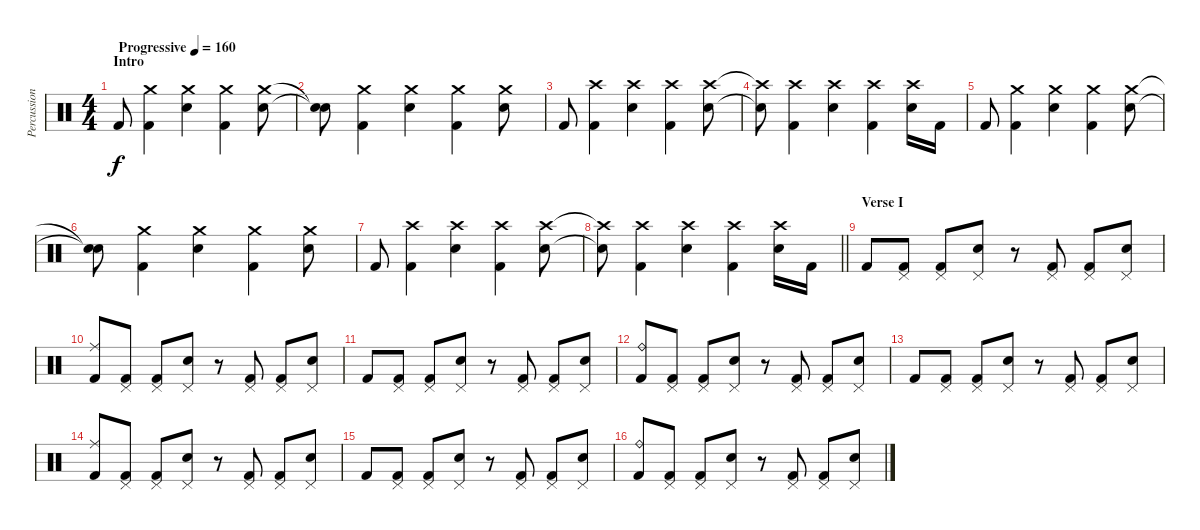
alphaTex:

\track ("Percussion" "Percussion") {instrument percussion}
\staff {score}
\articulation defaults
\ts (4 4)
\section ("" "Intro")
\tempo (160 "Progressive")
\clef neutral
\ks c "Kick (hit) 2".8{dy f}
("Crash medium (hit)" "Kick (hit) 2").4 ("Crash medium (hit)" "Electric Snare (hit)").4 ("Crash medium (hit)" "Kick (hit) 2").4 ("Crash medium (hit)" "Electric Snare (hit)").8 |
("Snare (hit)"{t} "Snare (hit)"{t}).8 ("Crash medium (hit)" "Kick (hit) 2").4 ("Crash medium (hit)" "Electric Snare (hit)").4 ("Crash medium (hit)" "Kick (hit) 2").4 ("Crash medium (hit)" "Electric Snare (hit)").8 |
"Kick (hit) 2".8 ("Crash high (hit)" "Kick (hit) 2").4 ("Crash high (hit)" "Electric Snare (hit)").4 ("Crash high (hit)" "Kick (hit) 2").4 ("Crash high (hit)" "Electric Snare (hit)").8 |
("Crash high (hit)"{t} "Snare (hit)"{t}).8 ("Crash high (hit)" "Kick (hit) 2").4 ("Crash high (hit)" "Electric Snare (hit)").4 ("Crash high (hit)" "Kick (hit) 2").4 ("Crash high (hit)" "Electric Snare (hit)").16 "Kick (hit) 2".16 |
"Kick (hit) 2".8 ("Crash medium (hit)" "Kick (hit) 2").4 ("Crash medium (hit)" "Electric Snare (hit)").4 ("Crash medium (hit)" "Kick (hit) 2").4 ("Crash medium (hit)" "Electric Snare (hit)").8 |
("Snare (hit)"{t} "Snare (hit)"{t}).8 ("Crash medium (hit)" "Kick (hit) 2").4 ("Crash medium (hit)" "Electric Snare (hit)").4 ("Crash medium (hit)" "Kick (hit) 2").4 ("Crash medium (hit)" "Electric Snare (hit)").8 |
"Kick (hit) 2".8 ("Crash high (hit)" "Kick (hit) 2").4 ("Crash high (hit)" "Electric Snare (hit)").4 ("Crash high (hit)" "Kick (hit) 2").4 ("Crash high (hit)" "Electric Snare (hit)").8 |
\barLineRight lightlight
("Crash high (hit)"{t} "Snare (hit)"{t}).8 ("Crash high (hit)" "Kick (hit) 2").4 ("Crash high (hit)" "Electric Snare (hit)").4 ("Crash high (hit)" "Kick (hit) 2").4 ("Crash high (hit)" "Electric Snare (hit)").16 "Kick (hit) 2".16 |
\section ("" "Verse I")
"Kick (hit) 2".8 ("Pedal Hi-Hat (hit)" "Kick (hit) 2").8 ("Pedal Hi-Hat (hit)" "Kick (hit) 2").8 ("Pedal Hi-Hat (hit)" "Electric Snare (hit)").8 r.8 ("Pedal Hi-Hat (hit)" "Kick (hit) 2").8 ("Pedal Hi-Hat (hit)" "Kick (hit) 2").8 ("Pedal Hi-Hat (hit)" "Electric Snare (hit)").8 |
("Ride (middle)" "Kick (hit) 2").8 ("Pedal Hi-Hat (hit)" "Kick (hit) 2").8 ("Pedal Hi-Hat (hit)" "Kick (hit) 2").8 ("Pedal Hi-Hat (hit)" "Electric Snare (hit)").8 r.8 ("Pedal Hi-Hat (hit)" "Kick (hit) 2").8 ("Pedal Hi-Hat (hit)" "Kick (hit) 2").8 ("Pedal Hi-Hat (hit)" "Electric Snare (hit)").8 |
"Kick (hit) 2".8 ("Pedal Hi-Hat (hit)" "Kick (hit) 2").8 ("Pedal Hi-Hat (hit)" "Kick (hit) 2").8 ("Pedal Hi-Hat (hit)" "Electric Snare (hit)").8 r.8 ("Pedal Hi-Hat (hit)" "Kick (hit) 2").8 ("Pedal Hi-Hat (hit)" "Kick (hit) 2").8 ("Pedal Hi-Hat (hit)" "Electric Snare (hit)").8 |
("Ride (bell)" "Kick (hit) 2").8 ("Pedal Hi-Hat (hit)" "Kick (hit) 2").8 ("Pedal Hi-Hat (hit)" "Kick (hit) 2").8 ("Pedal Hi-Hat (hit)" "Electric Snare (hit)").8 r.8 ("Pedal Hi-Hat (hit)" "Kick (hit) 2").8 ("Pedal Hi-Hat (hit)" "Kick (hit) 2").8 ("Pedal Hi-Hat (hit)" "Electric Snare (hit)").8 |
"Kick (hit) 2".8 ("Pedal Hi-Hat (hit)" "Kick (hit) 2").8 ("Pedal Hi-Hat (hit)" "Kick (hit) 2").8 ("Pedal Hi-Hat (hit)" "Electric Snare (hit)").8 r.8 ("Pedal Hi-Hat (hit)" "Kick (hit) 2").8 ("Pedal Hi-Hat (hit)" "Kick (hit) 2").8 ("Pedal Hi-Hat (hit)" "Electric Snare (hit)").8 |
("Ride (middle)" "Kick (hit) 2").8 ("Pedal Hi-Hat (hit)" "Kick (hit) 2").8 ("Pedal Hi-Hat (hit)" "Kick (hit) 2").8 ("Pedal Hi-Hat (hit)" "Electric Snare (hit)").8 r.8 ("Pedal Hi-Hat (hit)" "Kick (hit) 2").8 ("Pedal Hi-Hat (hit)" "Kick (hit) 2").8 ("Pedal Hi-Hat (hit)" "Electric Snare (hit)").8 |
"Kick (hit) 2".8 ("Pedal Hi-Hat (hit)" "Kick (hit) 2").8 ("Pedal Hi-Hat (hit)" "Kick (hit) 2").8 ("Pedal Hi-Hat (hit)" "Electric Snare (hit)").8 r.8 ("Pedal Hi-Hat (hit)" "Kick (hit) 2").8 ("Pedal Hi-Hat (hit)" "Kick (hit) 2").8 ("Pedal Hi-Hat (hit)" "Electric Snare (hit)").8 |
("Ride (bell)" "Kick (hit) 2").8 ("Pedal Hi-Hat (hit)" "Kick (hit) 2").8 ("Pedal Hi-Hat (hit)" "Kick (hit) 2").8 ("Pedal Hi-Hat (hit)" "Electric Snare (hit)").8 r.8 ("Pedal Hi-Hat (hit)" "Kick (hit) 2").8 ("Pedal Hi-Hat (hit)" "Kick (hit) 2").8 ("Pedal Hi-Hat (hit)" "Electric Snare (hit)").8
